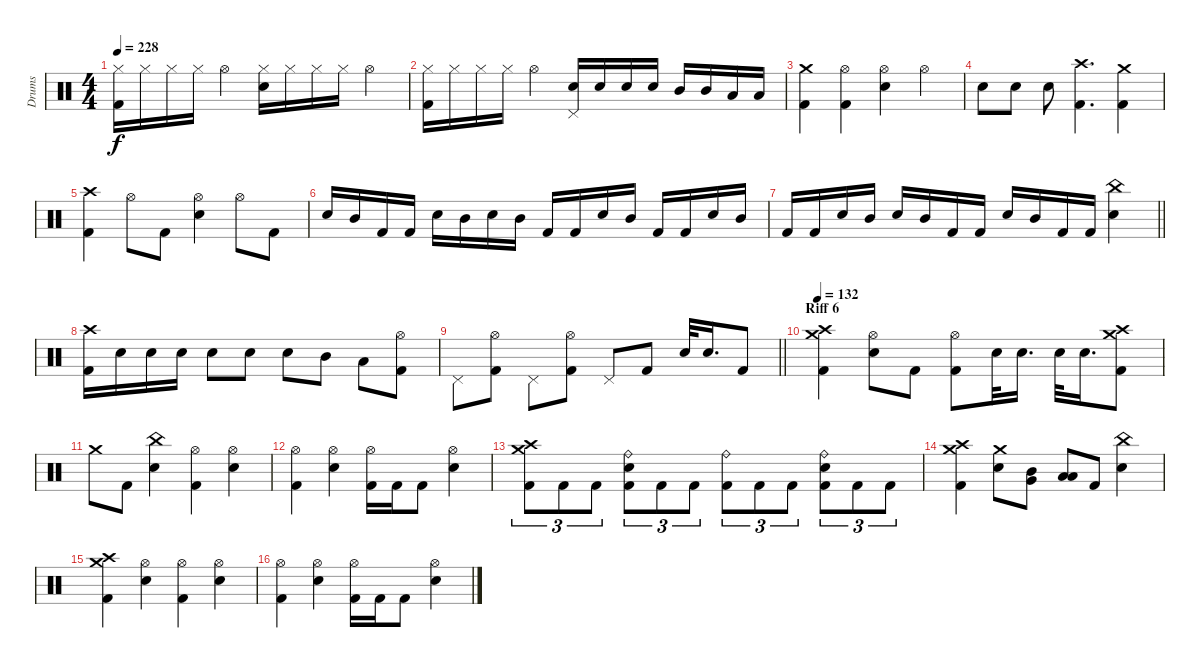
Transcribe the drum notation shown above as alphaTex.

\track ("Drums" "Drums") {instrument percussion}
\staff {score}
\articulation defaults
\ts (4 4)
\tempo 228
\clef neutral
\ks c
("Hi-Hat (closed)" "Kick (hit) 2").16{dy f} "Hi-Hat (closed)".16 "Hi-Hat (closed)".16 "Hi-Hat (closed)".16 "Hi-Hat (open)".4 ("Hi-Hat (closed)" "Electric Snare (hit)").16 "Hi-Hat (closed)".16 "Hi-Hat (closed)".16 "Hi-Hat (closed)".16 "Hi-Hat (open)".4 |
("Hi-Hat (closed)" "Kick (hit) 2").16 "Hi-Hat (closed)".16 "Hi-Hat (closed)".16 "Hi-Hat (closed)".16 "Hi-Hat (open)".4 ("Pedal Hi-Hat (hit)" "Electric Snare (hit)").16 "Electric Snare (hit)".16 "Electric Snare (hit)".16 "Electric Snare (hit)".16 "Mid Tom (hit)".16 "Mid Tom (hit)".16 "Low Tom (hit)".16 "Low Tom (hit)".16 |
("Crash medium (hit)" "Kick (hit) 2").4 ("Hi-Hat (open)" "Kick (hit) 2").4 ("Hi-Hat (open)" "Electric Snare (hit)").4 "Hi-Hat (open)".4 |
"Electric Snare (hit)".8 "Electric Snare (hit)".8 "Electric Snare (hit)".8 ("Crash high (hit)" "Kick (hit) 2").4{d} ("Crash medium (hit)" "Kick (hit) 2").4 |
("Crash high (hit)" "Kick (hit) 2").4 "Hi-Hat (open)".8 "Kick (hit) 2".8 ("Hi-Hat (open)" "Electric Snare (hit)").4 "Hi-Hat (open)".8 "Kick (hit) 2".8 |
"Electric Snare (hit)".16 "Mid Tom (hit)".16 "Kick (hit) 2".16 "Kick (hit) 2".16 "Electric Snare (hit)".16 "Mid Tom (hit)".16 "Electric Snare (hit)".16 "Mid Tom (hit)".16 "Kick (hit) 2".16 "Kick (hit) 2".16 "Electric Snare (hit)".16 "Mid Tom (hit)".16 "Kick (hit) 2".16 "Kick (hit) 2".16 "Electric Snare (hit)".16 "Mid Tom (hit)".16 |
\barLineRight lightlight "Kick (hit) 2".16 "Kick (hit) 2".16 "Electric Snare (hit)".16 "Mid Tom (hit)".16 "Electric Snare (hit)".16 "Mid Tom (hit)".16 "Kick (hit) 2".16 "Kick (hit) 2".16 "Electric Snare (hit)".16 "Mid Tom (hit)".16 "Kick (hit) 2".16 "Kick (hit) 2".16
("China (hit)" "Electric Snare (hit)").4 |
("Crash high (hit)" "Kick (hit) 2").16 "Electric Snare (hit)".16 "Electric Snare (hit)".16 "Electric Snare (hit)".16 "Electric Snare (hit)".8 "Electric Snare (hit)".8 "Electric Snare (hit)".8 "Mid Tom (hit)".8 "Low Tom (hit)".8 ("Hi-Hat (open)" "Kick (hit) 2").8 |
\barLineRight lightlight "Pedal Hi-Hat (hit)".8
("Hi-Hat (open)" "Kick (hit) 2").8 "Pedal Hi-Hat (hit)".8 ("Hi-Hat (open)" "Kick (hit) 2").8 "Pedal Hi-Hat (hit)".8 "Kick (hit) 2".8 "Electric Snare (hit)".32 "Electric Snare (hit)".16{d} "Kick (hit) 2".8 |
\section ("" "Riff 6")
\tempo 132
("Crash medium (hit)" "Crash high (hit)" "Kick (hit) 2").4 ("Hi-Hat (open)" "Electric Snare (hit)").8 "Kick (hit) 2".8 ("Hi-Hat (open)" "Kick (hit) 2").8 "Electric Snare (hit)".32 "Electric Snare (hit)".16{d} "Electric Snare (hit)".32 "Electric Snare (hit)".16{d} ("Crash medium (hit)" "Crash high (hit)" "Kick (hit) 2").8 |
"Crash medium (hit)".8 "Kick (hit) 2".8 ("China (hit)" "Electric Snare (hit)").4 ("Hi-Hat (open)" "Kick (hit) 2").4 ("Hi-Hat (open)" "Electric Snare (hit)").4 |
("Hi-Hat (open)" "Kick (hit) 2").4 ("Hi-Hat (open)" "Electric Snare (hit)").4 ("Hi-Hat (open)" "Kick (hit) 2").16 "Kick (hit) 2".16 "Kick (hit) 2".8 ("Hi-Hat (open)" "Electric Snare (hit)").4 |
("Crash medium (hit)" "Crash high (hit)" "Kick (hit) 2").8{tu (3 2)} "Kick (hit) 2".8{tu (3 2)} "Kick (hit) 2".8{tu (3 2)} ("Ride (bell)" "Electric Snare (hit)" "Kick (hit) 2").8{tu (3 2)} "Kick (hit) 2".8{tu (3 2)} "Kick (hit) 2".8{tu (3 2)} ("Ride (bell)" "Kick (hit) 2").8{tu (3 2)} "Kick (hit) 2".8{tu (3 2)} "Kick (hit) 2".8{tu (3 2)} ("Ride (bell)" "Electric Snare (hit)" "Kick (hit) 2").8{tu (3 2)} "Kick (hit) 2".8{tu (3 2)} "Kick (hit) 2".8{tu (3 2)} |
("Crash medium (hit)" "Crash high (hit)" "Kick (hit) 2").4 ("Crash medium (hit)" "Electric Snare (hit)").8 ("Mid Tom (hit)" "Very Low Tom (hit)").8 ("Low Tom (hit)" "Low Floor Tom (hit)").8 "Kick (hit) 2".8 ("China (hit)" "Electric Snare (hit)").4 |
("Crash medium (hit)" "Crash high (hit)" "Kick (hit) 2").4 ("Hi-Hat (open)" "Electric Snare (hit)").4 ("Hi-Hat (open)" "Kick (hit) 2").4 ("Hi-Hat (open)" "Electric Snare (hit)").4 |
("Hi-Hat (open)" "Kick (hit) 2").4 ("Hi-Hat (open)" "Electric Snare (hit)").4 ("Hi-Hat (open)" "Kick (hit) 2").16 "Kick (hit) 2".16 "Kick (hit) 2".8 ("Hi-Hat (open)" "Electric Snare (hit)").4
